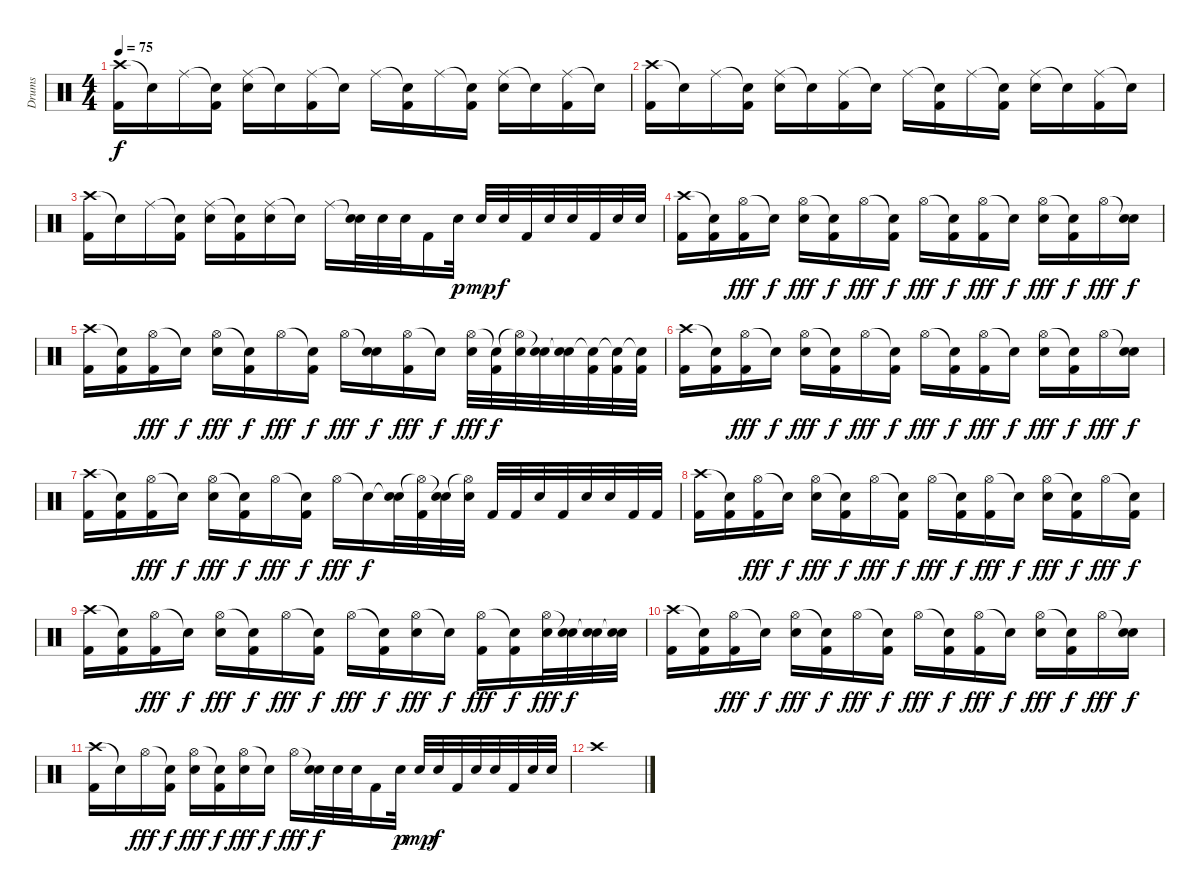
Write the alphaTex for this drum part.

\track ("Drums" "Drums") {instrument percussion}
\staff {score}
\articulation defaults
\ts (4 4)
\tempo 75
\clef neutral
\ks c
("Crash high (hit)" "Kick (hit) 2").16{dy f} "Snare (hit)"{t}.16 "Ride (middle)".16 ("Snare (hit)"{t} "Kick (hit) 2").16 ("Ride (middle)" "Electric Snare (hit)").16 "Snare (hit)"{t}.16 ("Ride (middle)" "Kick (hit) 2").16 "Snare (hit)"{t}.16 "Ride (middle)".16 ("Snare (hit)"{t} "Kick (hit) 2").16 "Ride (middle)".16 ("Snare (hit)"{t} "Kick (hit) 2").16 ("Ride (middle)" "Electric Snare (hit)").16 "Snare (hit)"{t}.16 ("Ride (middle)" "Kick (hit) 2").16 "Snare (hit)"{t}.16 |
("Crash high (hit)" "Kick (hit) 2").16 "Snare (hit)"{t}.16 "Ride (middle)".16 ("Snare (hit)"{t} "Kick (hit) 2").16 ("Ride (middle)" "Electric Snare (hit)").16 "Snare (hit)"{t}.16 ("Ride (middle)" "Kick (hit) 2").16 "Snare (hit)"{t}.16 "Ride (middle)".16 ("Snare (hit)"{t} "Kick (hit) 2").16 "Ride (middle)".16 ("Snare (hit)"{t} "Kick (hit) 2").16 ("Ride (middle)" "Electric Snare (hit)").16 "Snare (hit)"{t}.16 ("Ride (middle)" "Kick (hit) 2").16 "Snare (hit)"{t}.16 |
("Crash high (hit)" "Kick (hit) 2").16 "Snare (hit)"{t}.16 "Ride (middle)".16 ("Snare (hit)"{t} "Kick (hit) 2").16 ("Ride (middle)" "Electric Snare (hit)").16 ("Snare (hit)"{t} "Kick (hit) 2").16 ("Ride (middle)" "Electric Snare (hit)").16 "Snare (hit)"{t}.16 "Ride (middle)".16 ("Snare (hit)"{t} "Electric Snare (hit)").32 "Electric Snare (hit)".32 "Electric Snare (hit)".32 "Kick (hit) 2".16 "Electric Snare (hit)".32{dy p} "Electric Snare (hit)".32{dy mp} "Electric Snare (hit)".32{dy f} "Kick (hit) 2".32 "Electric Snare (hit)".32 "Electric Snare (hit)".32 "Kick (hit) 2".32 "Electric Snare (hit)".32 "Electric Snare (hit)".32 |
("Crash high (hit)" "Kick (hit) 2").16 ("Snare (hit)"{t} "Kick (hit) 2").16 ("Hi-Hat (open)" "Kick (hit) 2").16{dy fff} "Snare (hit)"{t}.16{dy f} ("Hi-Hat (open)" "Electric Snare (hit)").16{dy fff} ("Snare (hit)"{t} "Kick (hit) 2").16{dy f} "Hi-Hat (open)".16{dy fff} ("Snare (hit)"{t} "Kick (hit) 2").16{dy f} "Hi-Hat (open)".16{dy fff} ("Snare (hit)"{t} "Kick (hit) 2").16{dy f} ("Hi-Hat (open)" "Kick (hit) 2").16{dy fff} "Snare (hit)"{t}.16{dy f} ("Hi-Hat (open)" "Electric Snare (hit)").16{dy fff} ("Snare (hit)"{t} "Kick (hit) 2").16{dy f} "Hi-Hat (open)".16{dy fff} ("Snare (hit)"{t} "Electric Snare (hit)").16{dy f} |
("Crash high (hit)" "Kick (hit) 2").16 ("Snare (hit)"{t} "Kick (hit) 2").16 ("Hi-Hat (open)" "Kick (hit) 2").16{dy fff} "Snare (hit)"{t}.16{dy f} ("Hi-Hat (open)" "Electric Snare (hit)").16{dy fff} ("Snare (hit)"{t} "Kick (hit) 2").16{dy f} "Hi-Hat (open)".16{dy fff} ("Snare (hit)"{t} "Kick (hit) 2").16{dy f} "Hi-Hat (open)".16{dy fff} ("Snare (hit)"{t} "Electric Snare (hit)").16{dy f} ("Hi-Hat (open)" "Kick (hit) 2").16{dy fff} "Snare (hit)"{t}.16{dy f} ("Hi-Hat (open)" "Electric Snare (hit)").32{dy fff} ("Snare (hit)"{t} "Kick (hit) 2").32{dy f} ("Hi-Hat (open)"{t} "Electric Snare (hit)").32 ("Snare (hit)"{t} "Electric Snare (hit)").32 ("Snare (hit)"{t} "Electric Snare (hit)").32 ("Snare (hit)"{t} "Kick (hit) 2").32 ("Snare (hit)"{t} "Kick (hit) 2").32 ("Snare (hit)"{t} "Kick (hit) 2").32 |
("Crash high (hit)" "Kick (hit) 2").16 ("Snare (hit)"{t} "Kick (hit) 2").16 ("Hi-Hat (open)" "Kick (hit) 2").16{dy fff} "Snare (hit)"{t}.16{dy f} ("Hi-Hat (open)" "Electric Snare (hit)").16{dy fff} ("Snare (hit)"{t} "Kick (hit) 2").16{dy f} "Hi-Hat (open)".16{dy fff} ("Snare (hit)"{t} "Kick (hit) 2").16{dy f} "Hi-Hat (open)".16{dy fff} ("Snare (hit)"{t} "Kick (hit) 2").16{dy f} ("Hi-Hat (open)" "Kick (hit) 2").16{dy fff} "Snare (hit)"{t}.16{dy f} ("Hi-Hat (open)" "Electric Snare (hit)").16{dy fff} ("Snare (hit)"{t} "Kick (hit) 2").16{dy f} "Hi-Hat (open)".16{dy fff} ("Snare (hit)"{t} "Electric Snare (hit)").16{dy f} |
("Crash high (hit)" "Kick (hit) 2").16 ("Snare (hit)"{t} "Kick (hit) 2").16 ("Hi-Hat (open)" "Kick (hit) 2").16{dy fff} "Snare (hit)"{t}.16{dy f} ("Hi-Hat (open)" "Electric Snare (hit)").16{dy fff} ("Snare (hit)"{t} "Kick (hit) 2").16{dy f} "Hi-Hat (open)".16{dy fff} ("Snare (hit)"{t} "Kick (hit) 2").16{dy f} "Hi-Hat (open)".16{dy fff} "Snare (hit)"{t}.16{dy f} ("Snare (hit)"{t} "Electric Snare (hit)").32 ("Hi-Hat (open)"{t} "Kick (hit) 2").32 ("Snare (hit)"{t} "Electric Snare (hit)").32 ("Hi-Hat (open)"{t} "Electric Snare (hit)").32 "Kick (hit) 2".32 "Kick (hit) 2".32 "Electric Snare (hit)".32 "Kick (hit) 2".32 "Electric Snare (hit)".32 "Electric Snare (hit)".32 "Kick (hit) 2".32 "Kick (hit) 2".32 |
("Crash high (hit)" "Kick (hit) 2").16 ("Snare (hit)"{t} "Kick (hit) 2").16 ("Hi-Hat (open)" "Kick (hit) 2").16{dy fff} "Snare (hit)"{t}.16{dy f} ("Hi-Hat (open)" "Electric Snare (hit)").16{dy fff} ("Snare (hit)"{t} "Kick (hit) 2").16{dy f} "Hi-Hat (open)".16{dy fff} ("Snare (hit)"{t} "Kick (hit) 2").16{dy f} "Hi-Hat (open)".16{dy fff} ("Snare (hit)"{t} "Kick (hit) 2").16{dy f} ("Hi-Hat (open)" "Kick (hit) 2").16{dy fff} "Snare (hit)"{t}.16{dy f} ("Hi-Hat (open)" "Electric Snare (hit)").16{dy fff} ("Snare (hit)"{t} "Kick (hit) 2").16{dy f} "Hi-Hat (open)".16{dy fff} ("Snare (hit)"{t} "Kick (hit) 2").16{dy f} |
("Crash high (hit)" "Kick (hit) 2").16 ("Snare (hit)"{t} "Kick (hit) 2").16 ("Hi-Hat (open)" "Kick (hit) 2").16{dy fff} "Snare (hit)"{t}.16{dy f} ("Hi-Hat (open)" "Electric Snare (hit)").16{dy fff} ("Snare (hit)"{t} "Kick (hit) 2").16{dy f} "Hi-Hat (open)".16{dy fff} ("Snare (hit)"{t} "Kick (hit) 2").16{dy f} "Hi-Hat (open)".16{dy fff} ("Snare (hit)"{t} "Kick (hit) 2").16{dy f} ("Hi-Hat (open)" "Electric Snare (hit)").16{dy fff} "Snare (hit)"{t}.16{dy f} ("Hi-Hat (open)" "Kick (hit) 2").16{dy fff} ("Snare (hit)"{t} "Kick (hit) 2").16{dy f} ("Hi-Hat (open)" "Electric Snare (hit)").32{dy fff} ("Snare (hit)"{t} "Electric Snare (hit)").32{dy f} ("Snare (hit)"{t} "Electric Snare (hit)").32 ("Snare (hit)"{t} "Electric Snare (hit)").32 |
("Crash high (hit)" "Kick (hit) 2").16 ("Snare (hit)"{t} "Kick (hit) 2").16 ("Hi-Hat (open)" "Kick (hit) 2").16{dy fff} "Snare (hit)"{t}.16{dy f} ("Hi-Hat (open)" "Electric Snare (hit)").16{dy fff} ("Snare (hit)"{t} "Kick (hit) 2").16{dy f} "Hi-Hat (open)".16{dy fff} ("Snare (hit)"{t} "Kick (hit) 2").16{dy f} "Hi-Hat (open)".16{dy fff} ("Snare (hit)"{t} "Kick (hit) 2").16{dy f} ("Hi-Hat (open)" "Kick (hit) 2").16{dy fff} "Snare (hit)"{t}.16{dy f} ("Hi-Hat (open)" "Electric Snare (hit)").16{dy fff} ("Snare (hit)"{t} "Kick (hit) 2").16{dy f} "Hi-Hat (open)".16{dy fff} ("Snare (hit)"{t} "Electric Snare (hit)").16{dy f} |
("Crash high (hit)" "Kick (hit) 2").16 "Snare (hit)"{t}.16 "Hi-Hat (open)".16{dy fff} ("Snare (hit)"{t} "Kick (hit) 2").16{dy f} ("Hi-Hat (open)" "Electric Snare (hit)").16{dy fff} ("Snare (hit)"{t} "Kick (hit) 2").16{dy f} ("Hi-Hat (open)" "Electric Snare (hit)").16{dy fff} "Snare (hit)"{t}.16{dy f} "Hi-Hat (open)".16{dy fff} ("Snare (hit)"{t} "Electric Snare (hit)").32{dy f} "Electric Snare (hit)".32 "Electric Snare (hit)".32 "Kick (hit) 2".16 "Electric Snare (hit)".32{dy p} "Electric Snare (hit)".32{dy mp} "Electric Snare (hit)".32{dy f} "Kick (hit) 2".32 "Electric Snare (hit)".32 "Electric Snare (hit)".32 "Kick (hit) 2".32 "Electric Snare (hit)".32 "Electric Snare (hit)".32 |
"Crash high (hit)".1
